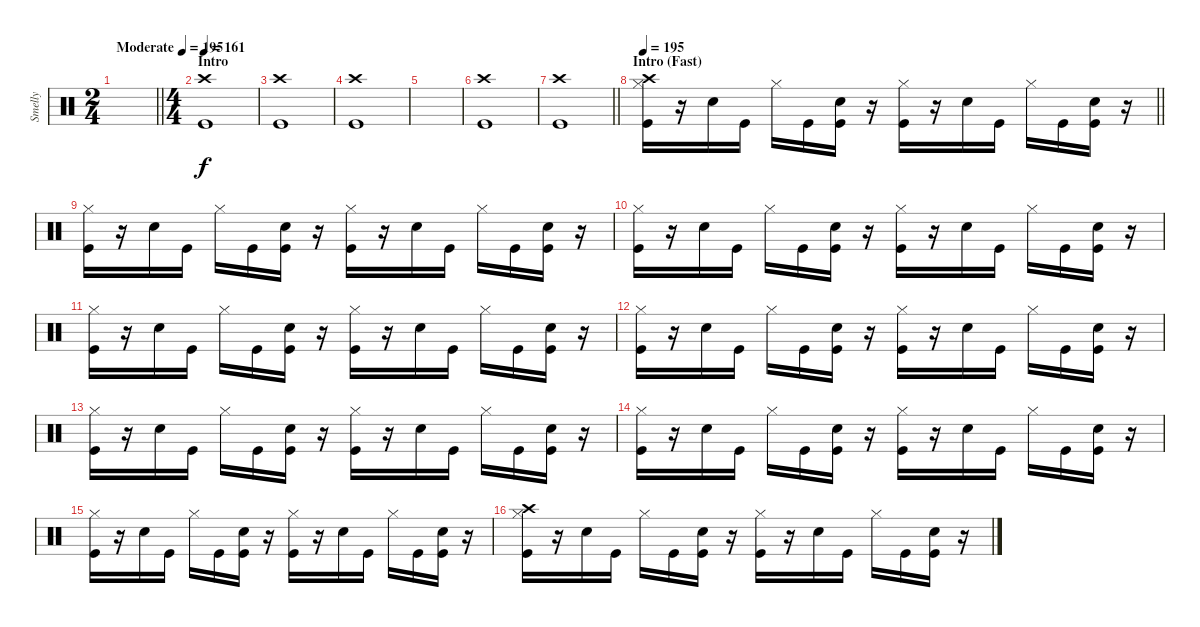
\track ("Smelly" "Smelly") {instrument percussion}
\staff {score}
\articulation defaults
\ts (2 4)
\tempo (195 "Moderate")
\clef neutral
\barLineRight lightlight
\ks c
|
\ts (4 4)
\section ("" "Intro")
\tempo 161
("Crash high (hit)" "Kick (hit)").1 |
("Crash high (hit)" "Kick (hit)").1 |
("Crash high (hit)" "Kick (hit)").1 |
|
("Crash high (hit)" "Kick (hit)").1 |
\barLineRight lightlight
("Crash high (hit)" "Kick (hit)").1 |
\section ("" "Intro (Fast)")
\tempo 195
\barLineRight lightlight
("Crash high (hit)" "Hi-Hat (closed)" "Kick (hit)").16 r.16 "Snare (hit) 2".16 "Kick (hit)".16 "Hi-Hat (closed)".16 "Kick (hit)".16 ("Snare (hit) 2" "Kick (hit)").16 r.16 ("Hi-Hat (closed)" "Kick (hit)").16 r.16 "Snare (hit) 2".16 "Kick (hit)".16 "Hi-Hat (closed)".16 "Kick (hit)".16 ("Snare (hit) 2" "Kick (hit)").16 r.16 |
("Hi-Hat (closed)" "Kick (hit)").16 r.16 "Snare (hit) 2".16 "Kick (hit)".16 "Hi-Hat (closed)".16 "Kick (hit)".16 ("Snare (hit) 2" "Kick (hit)").16 r.16 ("Hi-Hat (closed)" "Kick (hit)").16 r.16 "Snare (hit) 2".16 "Kick (hit)".16 "Hi-Hat (closed)".16 "Kick (hit)".16 ("Snare (hit) 2" "Kick (hit)").16 r.16 |
("Hi-Hat (closed)" "Kick (hit)").16 r.16 "Snare (hit) 2".16 "Kick (hit)".16 "Hi-Hat (closed)".16 "Kick (hit)".16 ("Snare (hit) 2" "Kick (hit)").16 r.16 ("Hi-Hat (closed)" "Kick (hit)").16 r.16 "Snare (hit) 2".16 "Kick (hit)".16 "Hi-Hat (closed)".16 "Kick (hit)".16 ("Snare (hit) 2" "Kick (hit)").16 r.16 |
("Hi-Hat (closed)" "Kick (hit)").16 r.16 "Snare (hit) 2".16 "Kick (hit)".16 "Hi-Hat (closed)".16 "Kick (hit)".16 ("Snare (hit) 2" "Kick (hit)").16 r.16 ("Hi-Hat (closed)" "Kick (hit)").16 r.16 "Snare (hit) 2".16 "Kick (hit)".16 "Hi-Hat (closed)".16 "Kick (hit)".16 ("Snare (hit) 2" "Kick (hit)").16 r.16 |
("Hi-Hat (closed)" "Kick (hit)").16 r.16 "Snare (hit) 2".16 "Kick (hit)".16 "Hi-Hat (closed)".16 "Kick (hit)".16 ("Snare (hit) 2" "Kick (hit)").16 r.16 ("Hi-Hat (closed)" "Kick (hit)").16 r.16 "Snare (hit) 2".16 "Kick (hit)".16 "Hi-Hat (closed)".16 "Kick (hit)".16 ("Snare (hit) 2" "Kick (hit)").16 r.16 |
("Hi-Hat (closed)" "Kick (hit)").16 r.16 "Snare (hit) 2".16 "Kick (hit)".16 "Hi-Hat (closed)".16 "Kick (hit)".16 ("Snare (hit) 2" "Kick (hit)").16 r.16 ("Hi-Hat (closed)" "Kick (hit)").16 r.16 "Snare (hit) 2".16 "Kick (hit)".16 "Hi-Hat (closed)".16 "Kick (hit)".16 ("Snare (hit) 2" "Kick (hit)").16 r.16 |
("Hi-Hat (closed)" "Kick (hit)").16 r.16 "Snare (hit) 2".16 "Kick (hit)".16 "Hi-Hat (closed)".16 "Kick (hit)".16 ("Snare (hit) 2" "Kick (hit)").16 r.16 ("Hi-Hat (closed)" "Kick (hit)").16 r.16 "Snare (hit) 2".16 "Kick (hit)".16 "Hi-Hat (closed)".16 "Kick (hit)".16 ("Snare (hit) 2" "Kick (hit)").16 r.16 |
("Hi-Hat (closed)" "Kick (hit)").16 r.16 "Snare (hit) 2".16 "Kick (hit)".16 "Hi-Hat (closed)".16 "Kick (hit)".16 ("Snare (hit) 2" "Kick (hit)").16 r.16 ("Hi-Hat (closed)" "Kick (hit)").16 r.16 "Snare (hit) 2".16 "Kick (hit)".16 "Hi-Hat (closed)".16 "Kick (hit)".16 ("Snare (hit) 2" "Kick (hit)").16 r.16 |
("Crash high (hit)" "Hi-Hat (closed)" "Kick (hit)").16 r.16 "Snare (hit) 2".16 "Kick (hit)".16 "Hi-Hat (closed)".16 "Kick (hit)".16 ("Snare (hit) 2" "Kick (hit)").16 r.16 ("Hi-Hat (closed)" "Kick (hit)").16 r.16 "Snare (hit) 2".16 "Kick (hit)".16 "Hi-Hat (closed)".16 "Kick (hit)".16 ("Snare (hit) 2" "Kick (hit)").16 r.16
